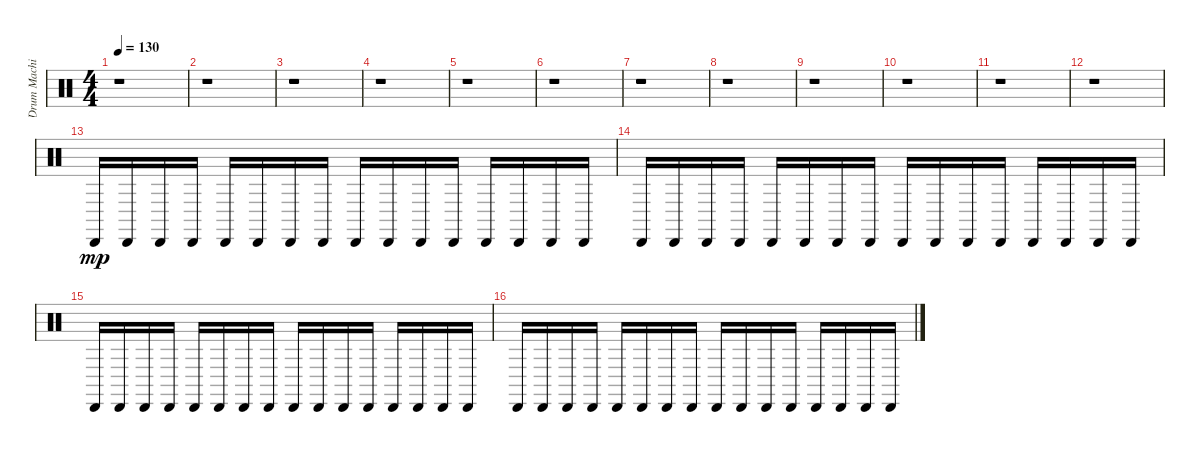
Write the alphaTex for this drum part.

\track ("Drum Machine" "Drum Machi") {instrument percussion}
\staff {score}
\articulation defaults
\ts (4 4)
\tempo 130
\clef neutral
\ks c
r.1{dy mp} |
r.1 |
r.1 |
r.1 |
r.1 |
r.1 |
r.1 |
r.1 |
r.1 |
r.1 |
r.1 |
r.1 |
"Cabasa (hit)".16 "Cabasa (hit)".16 "Cabasa (hit)".16 "Cabasa (hit)".16 "Cabasa (hit)".16 "Cabasa (hit)".16 "Cabasa (hit)".16 "Cabasa (hit)".16 "Cabasa (hit)".16 "Cabasa (hit)".16 "Cabasa (hit)".16 "Cabasa (hit)".16 "Cabasa (hit)".16 "Cabasa (hit)".16 "Cabasa (hit)".16 "Cabasa (hit)".16 |
"Cabasa (hit)".16 "Cabasa (hit)".16 "Cabasa (hit)".16 "Cabasa (hit)".16 "Cabasa (hit)".16 "Cabasa (hit)".16 "Cabasa (hit)".16 "Cabasa (hit)".16 "Cabasa (hit)".16 "Cabasa (hit)".16 "Cabasa (hit)".16 "Cabasa (hit)".16 "Cabasa (hit)".16 "Cabasa (hit)".16 "Cabasa (hit)".16 "Cabasa (hit)".16 |
"Cabasa (hit)".16 "Cabasa (hit)".16 "Cabasa (hit)".16 "Cabasa (hit)".16 "Cabasa (hit)".16 "Cabasa (hit)".16 "Cabasa (hit)".16 "Cabasa (hit)".16 "Cabasa (hit)".16 "Cabasa (hit)".16 "Cabasa (hit)".16 "Cabasa (hit)".16 "Cabasa (hit)".16 "Cabasa (hit)".16 "Cabasa (hit)".16 "Cabasa (hit)".16 |
"Cabasa (hit)".16 "Cabasa (hit)".16 "Cabasa (hit)".16 "Cabasa (hit)".16 "Cabasa (hit)".16 "Cabasa (hit)".16 "Cabasa (hit)".16 "Cabasa (hit)".16 "Cabasa (hit)".16 "Cabasa (hit)".16 "Cabasa (hit)".16 "Cabasa (hit)".16 "Cabasa (hit)".16 "Cabasa (hit)".16 "Cabasa (hit)".16 "Cabasa (hit)".16
